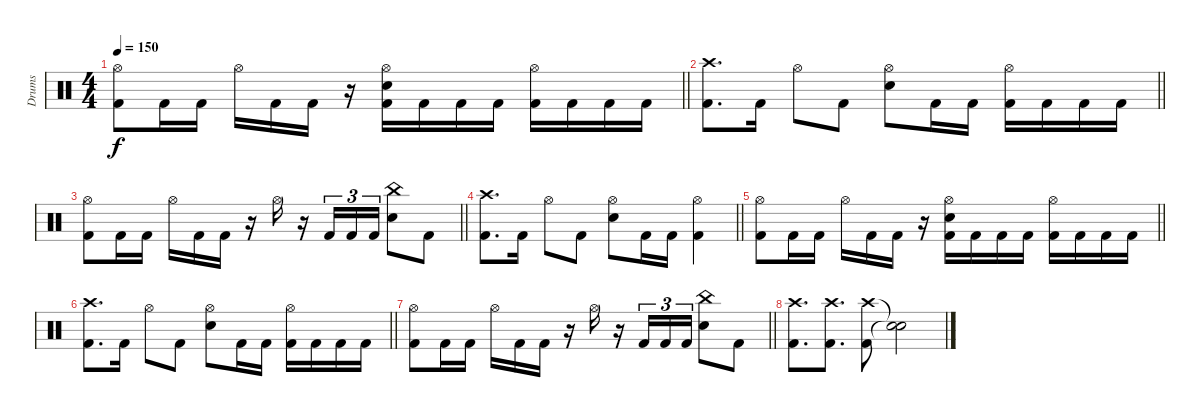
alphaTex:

\track ("Drums" "Drums") {instrument percussion}
\staff {score}
\articulation defaults
\ts (4 4)
\tempo 150
\clef neutral
\barLineRight lightlight
\ks c
("Hi-Hat (open)" "Kick (hit) 2").8{dy f} "Kick (hit) 2".16 "Kick (hit) 2".16 "Hi-Hat (open)".16 "Kick (hit) 2".16 "Kick (hit) 2".16 r.16 ("Hi-Hat (open)" "Electric Snare (hit)" "Kick (hit) 2").16 "Kick (hit) 2".16 "Kick (hit) 2".16 "Kick (hit) 2".16 ("Hi-Hat (open)" "Kick (hit) 2").16 "Kick (hit) 2".16 "Kick (hit) 2".16 "Kick (hit) 2".16 |
\barLineRight lightlight
("Crash high (hit)" "Kick (hit) 2").8{d} "Kick (hit) 2".16 "Hi-Hat (open)".8 "Kick (hit) 2".8 ("Hi-Hat (open)" "Electric Snare (hit)").8 "Kick (hit) 2".16 "Kick (hit) 2".16 ("Hi-Hat (open)" "Kick (hit) 2").16 "Kick (hit) 2".16 "Kick (hit) 2".16 "Kick (hit) 2".16 |
\barLineRight lightlight
("Hi-Hat (open)" "Kick (hit) 2").8 "Kick (hit) 2".16 "Kick (hit) 2".16 "Hi-Hat (open)".16 "Kick (hit) 2".16 "Kick (hit) 2".16 r.16 "Hi-Hat (open)".16 r.16 "Kick (hit) 2".16{tu (3 2)} "Kick (hit) 2".16{tu (3 2)} "Kick (hit) 2".16{tu (3 2)} ("China (hit)" "Electric Snare (hit)").8 "Kick (hit) 2".8 |
\barLineRight lightlight
("Crash high (hit)" "Kick (hit) 2").8{d} "Kick (hit) 2".16 "Hi-Hat (open)".8 "Kick (hit) 2".8 ("Hi-Hat (open)" "Electric Snare (hit)").8 "Kick (hit) 2".16 "Kick (hit) 2".16 ("Hi-Hat (open)" "Kick (hit) 2").4 |
\barLineRight lightlight
("Hi-Hat (open)" "Kick (hit) 2").8 "Kick (hit) 2".16 "Kick (hit) 2".16 "Hi-Hat (open)".16 "Kick (hit) 2".16 "Kick (hit) 2".16 r.16 ("Hi-Hat (open)" "Electric Snare (hit)" "Kick (hit) 2").16 "Kick (hit) 2".16 "Kick (hit) 2".16 "Kick (hit) 2".16 ("Hi-Hat (open)" "Kick (hit) 2").16 "Kick (hit) 2".16 "Kick (hit) 2".16 "Kick (hit) 2".16 |
\barLineRight lightlight
("Crash high (hit)" "Kick (hit) 2").8{d} "Kick (hit) 2".16 "Hi-Hat (open)".8 "Kick (hit) 2".8 ("Hi-Hat (open)" "Electric Snare (hit)").8 "Kick (hit) 2".16 "Kick (hit) 2".16 ("Hi-Hat (open)" "Kick (hit) 2").16 "Kick (hit) 2".16 "Kick (hit) 2".16 "Kick (hit) 2".16 |
\barLineRight lightlight
("Hi-Hat (open)" "Kick (hit) 2").8 "Kick (hit) 2".16 "Kick (hit) 2".16 "Hi-Hat (open)".16 "Kick (hit) 2".16 "Kick (hit) 2".16 r.16 "Hi-Hat (open)".16 r.16 "Kick (hit) 2".16{tu (3 2)} "Kick (hit) 2".16{tu (3 2)} "Kick (hit) 2".16{tu (3 2)} ("China (hit)" "Electric Snare (hit)").8 "Kick (hit) 2".8 |
("Crash high (hit)" "Kick (hit) 2").8{d} ("Crash high (hit)" "Kick (hit) 2").8{d} ("Crash high (hit)" "Kick (hit) 2").8 ("Snare (hit)"{t} "Snare (hit)"{t}).2
